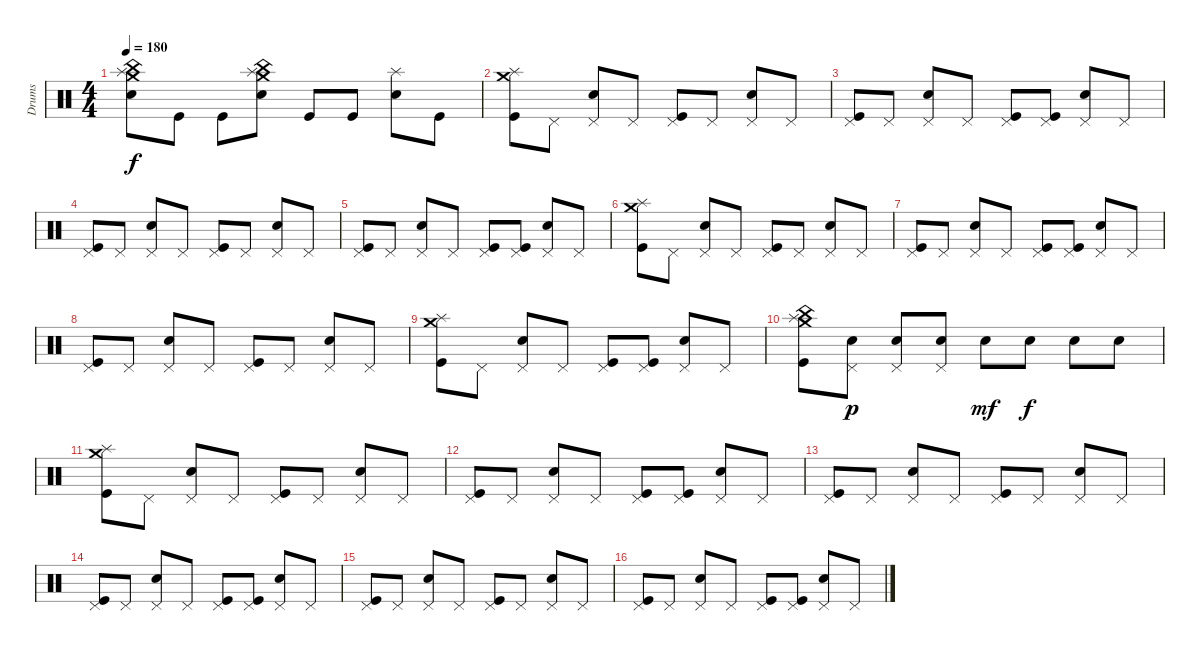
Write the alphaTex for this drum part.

\track ("Drums" "Drums") {instrument percussion}
\staff {score}
\articulation defaults
\ts (4 4)
\tempo 180
\clef neutral
\ks c
("Splash (hit)" "China (hit)" "Crash medium (hit)" "Snare (hit) 2").8{dy f} "Kick (hit)".8 "Kick (hit)".8 ("China (hit)" "Splash (hit)" "Crash medium (hit)" "Snare (hit) 2").8 "Kick (hit)".8 "Kick (hit)".8 ("Splash (hit)" "Snare (hit) 2").8 "Kick (hit)".8 |
("Splash (hit)" "Crash medium (hit)" "Kick (hit)").8 "Pedal Hi-Hat (hit)".8 ("Pedal Hi-Hat (hit)" "Snare (hit) 2").8 "Pedal Hi-Hat (hit)".8 ("Pedal Hi-Hat (hit)" "Kick (hit)").8 "Pedal Hi-Hat (hit)".8 ("Pedal Hi-Hat (hit)" "Snare (hit) 2").8 "Pedal Hi-Hat (hit)".8 |
("Pedal Hi-Hat (hit)" "Kick (hit)").8 "Pedal Hi-Hat (hit)".8 ("Pedal Hi-Hat (hit)" "Snare (hit) 2").8 "Pedal Hi-Hat (hit)".8 ("Pedal Hi-Hat (hit)" "Kick (hit)").8 ("Pedal Hi-Hat (hit)" "Kick (hit)").8 ("Pedal Hi-Hat (hit)" "Snare (hit) 2").8 "Pedal Hi-Hat (hit)".8 |
("Pedal Hi-Hat (hit)" "Kick (hit)").8 "Pedal Hi-Hat (hit)".8 ("Pedal Hi-Hat (hit)" "Snare (hit) 2").8 "Pedal Hi-Hat (hit)".8 ("Pedal Hi-Hat (hit)" "Kick (hit)").8 "Pedal Hi-Hat (hit)".8 ("Pedal Hi-Hat (hit)" "Snare (hit) 2").8 "Pedal Hi-Hat (hit)".8 |
("Pedal Hi-Hat (hit)" "Kick (hit)").8 "Pedal Hi-Hat (hit)".8 ("Pedal Hi-Hat (hit)" "Snare (hit) 2").8 "Pedal Hi-Hat (hit)".8 ("Pedal Hi-Hat (hit)" "Kick (hit)").8 ("Pedal Hi-Hat (hit)" "Kick (hit)").8 ("Pedal Hi-Hat (hit)" "Snare (hit) 2").8 "Pedal Hi-Hat (hit)".8 |
("Splash (hit)" "Crash medium (hit)" "Kick (hit)").8 "Pedal Hi-Hat (hit)".8 ("Pedal Hi-Hat (hit)" "Snare (hit) 2").8 "Pedal Hi-Hat (hit)".8 ("Pedal Hi-Hat (hit)" "Kick (hit)").8 "Pedal Hi-Hat (hit)".8 ("Pedal Hi-Hat (hit)" "Snare (hit) 2").8 "Pedal Hi-Hat (hit)".8 |
("Pedal Hi-Hat (hit)" "Kick (hit)").8 "Pedal Hi-Hat (hit)".8 ("Pedal Hi-Hat (hit)" "Snare (hit) 2").8 "Pedal Hi-Hat (hit)".8 ("Pedal Hi-Hat (hit)" "Kick (hit)").8 ("Pedal Hi-Hat (hit)" "Kick (hit)").8 ("Pedal Hi-Hat (hit)" "Snare (hit) 2").8 "Pedal Hi-Hat (hit)".8 |
("Pedal Hi-Hat (hit)" "Kick (hit)").8 "Pedal Hi-Hat (hit)".8 ("Pedal Hi-Hat (hit)" "Snare (hit) 2").8 "Pedal Hi-Hat (hit)".8 ("Pedal Hi-Hat (hit)" "Kick (hit)").8 "Pedal Hi-Hat (hit)".8 ("Pedal Hi-Hat (hit)" "Snare (hit) 2").8 "Pedal Hi-Hat (hit)".8 |
("Crash medium (hit)" "Splash (hit)" "Kick (hit)").8 "Pedal Hi-Hat (hit)".8 ("Pedal Hi-Hat (hit)" "Snare (hit) 2").8 "Pedal Hi-Hat (hit)".8 ("Pedal Hi-Hat (hit)" "Kick (hit)").8 ("Pedal Hi-Hat (hit)" "Kick (hit)").8 ("Pedal Hi-Hat (hit)" "Snare (hit) 2").8 "Pedal Hi-Hat (hit)".8 |
("Crash medium (hit)" "Splash (hit)" "China (hit)" "Kick (hit)").8 ("Pedal Hi-Hat (hit)" "Snare (hit) 2").8{dy p} ("Pedal Hi-Hat (hit)" "Snare (hit) 2").8 ("Pedal Hi-Hat (hit)" "Snare (hit) 2").8 "Snare (hit) 2".8{dy mf} "Snare (hit) 2".8{dy f} "Snare (hit) 2".8 "Snare (hit) 2".8 |
("Splash (hit)" "Crash medium (hit)" "Kick (hit)").8 "Pedal Hi-Hat (hit)".8 ("Pedal Hi-Hat (hit)" "Snare (hit) 2").8 "Pedal Hi-Hat (hit)".8 ("Pedal Hi-Hat (hit)" "Kick (hit)").8 "Pedal Hi-Hat (hit)".8 ("Pedal Hi-Hat (hit)" "Snare (hit) 2").8 "Pedal Hi-Hat (hit)".8 |
("Pedal Hi-Hat (hit)" "Kick (hit)").8 "Pedal Hi-Hat (hit)".8 ("Pedal Hi-Hat (hit)" "Snare (hit) 2").8 "Pedal Hi-Hat (hit)".8 ("Pedal Hi-Hat (hit)" "Kick (hit)").8 ("Pedal Hi-Hat (hit)" "Kick (hit)").8 ("Pedal Hi-Hat (hit)" "Snare (hit) 2").8 "Pedal Hi-Hat (hit)".8 |
("Pedal Hi-Hat (hit)" "Kick (hit)").8 "Pedal Hi-Hat (hit)".8 ("Pedal Hi-Hat (hit)" "Snare (hit) 2").8 "Pedal Hi-Hat (hit)".8 ("Pedal Hi-Hat (hit)" "Kick (hit)").8 "Pedal Hi-Hat (hit)".8 ("Pedal Hi-Hat (hit)" "Snare (hit) 2").8 "Pedal Hi-Hat (hit)".8 |
("Pedal Hi-Hat (hit)" "Kick (hit)").8 "Pedal Hi-Hat (hit)".8 ("Pedal Hi-Hat (hit)" "Snare (hit) 2").8 "Pedal Hi-Hat (hit)".8 ("Pedal Hi-Hat (hit)" "Kick (hit)").8 ("Pedal Hi-Hat (hit)" "Kick (hit)").8 ("Pedal Hi-Hat (hit)" "Snare (hit) 2").8 "Pedal Hi-Hat (hit)".8 |
("Pedal Hi-Hat (hit)" "Kick (hit)").8 "Pedal Hi-Hat (hit)".8 ("Pedal Hi-Hat (hit)" "Snare (hit) 2").8 "Pedal Hi-Hat (hit)".8 ("Pedal Hi-Hat (hit)" "Kick (hit)").8 "Pedal Hi-Hat (hit)".8 ("Pedal Hi-Hat (hit)" "Snare (hit) 2").8 "Pedal Hi-Hat (hit)".8 |
("Pedal Hi-Hat (hit)" "Kick (hit)").8 "Pedal Hi-Hat (hit)".8 ("Pedal Hi-Hat (hit)" "Snare (hit) 2").8 "Pedal Hi-Hat (hit)".8 ("Pedal Hi-Hat (hit)" "Kick (hit)").8 ("Pedal Hi-Hat (hit)" "Kick (hit)").8 ("Pedal Hi-Hat (hit)" "Snare (hit) 2").8 "Pedal Hi-Hat (hit)".8
